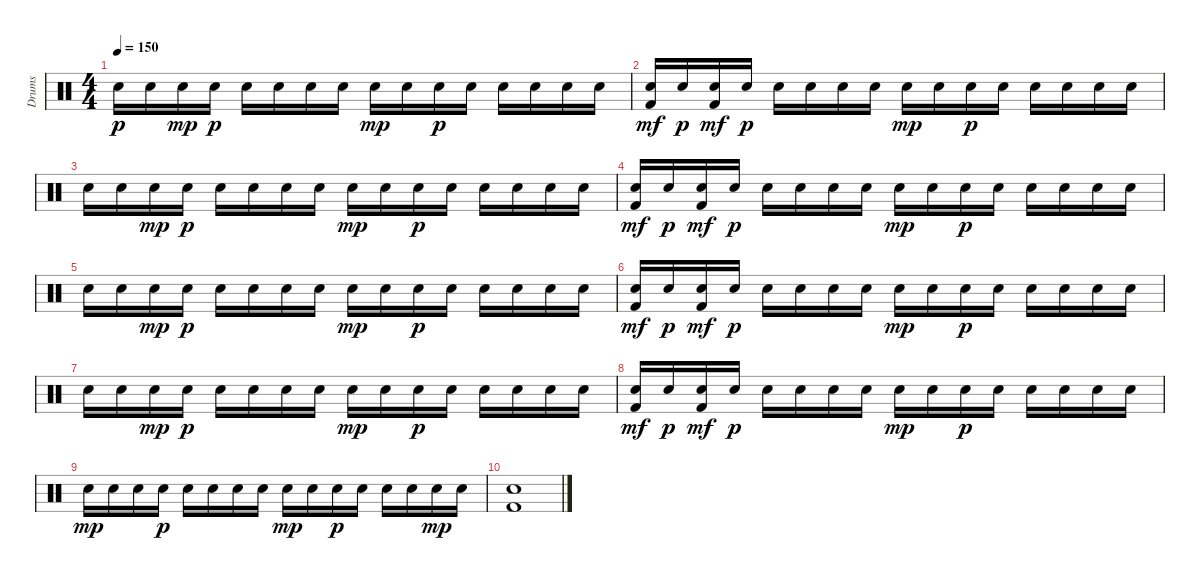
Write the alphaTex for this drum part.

\track ("Drums" "Drums") {instrument percussion}
\staff {score}
\articulation defaults
\ts (4 4)
\tempo 150
\clef neutral
\ks c "Electric Snare (hit)".16{dy p} "Electric Snare (hit)".16 "Electric Snare (hit)".16{dy mp} "Electric Snare (hit)".16{dy p} "Electric Snare (hit)".16 "Electric Snare (hit)".16 "Electric Snare (hit)".16 "Electric Snare (hit)".16 "Electric Snare (hit)".16{dy mp} "Electric Snare (hit)".16 "Electric Snare (hit)".16{dy p} "Electric Snare (hit)".16 "Electric Snare (hit)".16 "Electric Snare (hit)".16 "Electric Snare (hit)".16 "Electric Snare (hit)".16
|
("Electric Snare (hit)" "Kick (hit) 2").16{dy mf} "Electric Snare (hit)".16{dy p} ("Electric Snare (hit)" "Kick (hit) 2").16{dy mf} "Electric Snare (hit)".16{dy p} "Electric Snare (hit)".16 "Electric Snare (hit)".16 "Electric Snare (hit)".16 "Electric Snare (hit)".16 "Electric Snare (hit)".16{dy mp} "Electric Snare (hit)".16 "Electric Snare (hit)".16{dy p} "Electric Snare (hit)".16 "Electric Snare (hit)".16 "Electric Snare (hit)".16 "Electric Snare (hit)".16 "Electric Snare (hit)".16 |
"Electric Snare (hit)".16 "Electric Snare (hit)".16 "Electric Snare (hit)".16{dy mp} "Electric Snare (hit)".16{dy p} "Electric Snare (hit)".16 "Electric Snare (hit)".16 "Electric Snare (hit)".16 "Electric Snare (hit)".16 "Electric Snare (hit)".16{dy mp} "Electric Snare (hit)".16 "Electric Snare (hit)".16{dy p} "Electric Snare (hit)".16 "Electric Snare (hit)".16 "Electric Snare (hit)".16 "Electric Snare (hit)".16 "Electric Snare (hit)".16 |
("Electric Snare (hit)" "Kick (hit) 2").16{dy mf} "Electric Snare (hit)".16{dy p} ("Electric Snare (hit)" "Kick (hit) 2").16{dy mf} "Electric Snare (hit)".16{dy p} "Electric Snare (hit)".16 "Electric Snare (hit)".16 "Electric Snare (hit)".16 "Electric Snare (hit)".16 "Electric Snare (hit)".16{dy mp} "Electric Snare (hit)".16 "Electric Snare (hit)".16{dy p} "Electric Snare (hit)".16 "Electric Snare (hit)".16 "Electric Snare (hit)".16 "Electric Snare (hit)".16 "Electric Snare (hit)".16 |
"Electric Snare (hit)".16 "Electric Snare (hit)".16 "Electric Snare (hit)".16{dy mp} "Electric Snare (hit)".16{dy p} "Electric Snare (hit)".16 "Electric Snare (hit)".16 "Electric Snare (hit)".16 "Electric Snare (hit)".16 "Electric Snare (hit)".16{dy mp} "Electric Snare (hit)".16 "Electric Snare (hit)".16{dy p} "Electric Snare (hit)".16 "Electric Snare (hit)".16 "Electric Snare (hit)".16 "Electric Snare (hit)".16 "Electric Snare (hit)".16 |
("Electric Snare (hit)" "Kick (hit) 2").16{dy mf} "Electric Snare (hit)".16{dy p} ("Electric Snare (hit)" "Kick (hit) 2").16{dy mf} "Electric Snare (hit)".16{dy p} "Electric Snare (hit)".16 "Electric Snare (hit)".16 "Electric Snare (hit)".16 "Electric Snare (hit)".16 "Electric Snare (hit)".16{dy mp} "Electric Snare (hit)".16 "Electric Snare (hit)".16{dy p} "Electric Snare (hit)".16 "Electric Snare (hit)".16 "Electric Snare (hit)".16 "Electric Snare (hit)".16 "Electric Snare (hit)".16 |
"Electric Snare (hit)".16 "Electric Snare (hit)".16 "Electric Snare (hit)".16{dy mp} "Electric Snare (hit)".16{dy p} "Electric Snare (hit)".16 "Electric Snare (hit)".16 "Electric Snare (hit)".16 "Electric Snare (hit)".16 "Electric Snare (hit)".16{dy mp} "Electric Snare (hit)".16 "Electric Snare (hit)".16{dy p} "Electric Snare (hit)".16 "Electric Snare (hit)".16 "Electric Snare (hit)".16 "Electric Snare (hit)".16 "Electric Snare (hit)".16 |
("Electric Snare (hit)" "Kick (hit) 2").16{dy mf} "Electric Snare (hit)".16{dy p} ("Electric Snare (hit)" "Kick (hit) 2").16{dy mf} "Electric Snare (hit)".16{dy p} "Electric Snare (hit)".16 "Electric Snare (hit)".16 "Electric Snare (hit)".16 "Electric Snare (hit)".16 "Electric Snare (hit)".16{dy mp} "Electric Snare (hit)".16 "Electric Snare (hit)".16{dy p} "Electric Snare (hit)".16 "Electric Snare (hit)".16 "Electric Snare (hit)".16 "Electric Snare (hit)".16 "Electric Snare (hit)".16 |
"Electric Snare (hit)".16{dy mp} "Electric Snare (hit)".16 "Electric Snare (hit)".16 "Electric Snare (hit)".16{dy p} "Electric Snare (hit)".16 "Electric Snare (hit)".16 "Electric Snare (hit)".16 "Electric Snare (hit)".16 "Electric Snare (hit)".16{dy mp} "Electric Snare (hit)".16 "Electric Snare (hit)".16{dy p} "Electric Snare (hit)".16 "Electric Snare (hit)".16 "Electric Snare (hit)".16 "Electric Snare (hit)".16{dy mp} "Electric Snare (hit)".16 |
("Electric Snare (hit)" "Kick (hit) 2").1
